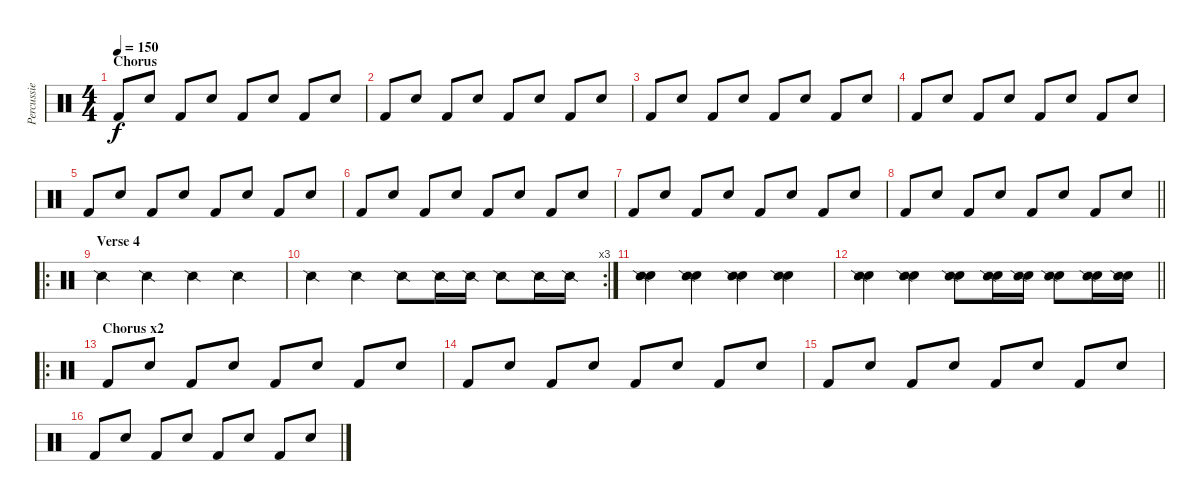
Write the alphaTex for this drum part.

\track ("Percussie" "Percussie") {instrument percussion}
\staff {score}
\articulation defaults
\ts (4 4)
\section ("" "Chorus")
\tempo 150
\clef neutral
\ks c "Kick (hit) 2".8{dy f} "Snare (hit) 2".8 "Kick (hit) 2".8 "Snare (hit) 2".8 "Kick (hit) 2".8 "Snare (hit) 2".8 "Kick (hit) 2".8 "Snare (hit) 2".8
|
"Kick (hit) 2".8 "Snare (hit) 2".8 "Kick (hit) 2".8 "Snare (hit) 2".8 "Kick (hit) 2".8 "Snare (hit) 2".8 "Kick (hit) 2".8 "Snare (hit) 2".8 |
"Kick (hit) 2".8 "Snare (hit) 2".8 "Kick (hit) 2".8 "Snare (hit) 2".8 "Kick (hit) 2".8 "Snare (hit) 2".8 "Kick (hit) 2".8 "Snare (hit) 2".8 |
"Kick (hit) 2".8 "Snare (hit) 2".8 "Kick (hit) 2".8 "Snare (hit) 2".8 "Kick (hit) 2".8 "Snare (hit) 2".8 "Kick (hit) 2".8 "Snare (hit) 2".8 |
"Kick (hit) 2".8 "Snare (hit) 2".8 "Kick (hit) 2".8 "Snare (hit) 2".8 "Kick (hit) 2".8 "Snare (hit) 2".8 "Kick (hit) 2".8 "Snare (hit) 2".8 |
"Kick (hit) 2".8 "Snare (hit) 2".8 "Kick (hit) 2".8 "Snare (hit) 2".8 "Kick (hit) 2".8 "Snare (hit) 2".8 "Kick (hit) 2".8 "Snare (hit) 2".8 |
"Kick (hit) 2".8 "Snare (hit) 2".8 "Kick (hit) 2".8 "Snare (hit) 2".8 "Kick (hit) 2".8 "Snare (hit) 2".8 "Kick (hit) 2".8 "Snare (hit) 2".8 |
\barLineRight lightlight "Kick (hit) 2".8 "Snare (hit) 2".8 "Kick (hit) 2".8 "Snare (hit) 2".8 "Kick (hit) 2".8 "Snare (hit) 2".8 "Kick (hit) 2".8 "Snare (hit) 2".8
|
\ro
\section ("" "Verse 4")
"Snare (side stick) 2".4 "Snare (side stick) 2".4 "Snare (side stick) 2".4 "Snare (side stick) 2".4 |
\rc 3 "Snare (side stick) 2".4 "Snare (side stick) 2".4 "Snare (side stick) 2".8 "Snare (side stick) 2".16 "Snare (side stick) 2".16 "Snare (side stick) 2".8 "Snare (side stick) 2".16 "Snare (side stick) 2".16
|
("Snare (hit) 2" "Snare (side stick) 2").4 ("Snare (hit) 2" "Snare (side stick) 2").4 ("Snare (hit) 2" "Snare (side stick) 2").4 ("Snare (hit) 2" "Snare (side stick) 2").4 |
\barLineRight lightlight
("Snare (hit) 2" "Snare (side stick) 2").4 ("Snare (hit) 2" "Snare (side stick) 2").4 ("Snare (hit) 2" "Snare (side stick) 2").8 ("Snare (hit) 2" "Snare (side stick) 2").16 ("Snare (hit) 2" "Snare (side stick) 2").16 ("Snare (hit) 2" "Snare (side stick) 2").8 ("Snare (hit) 2" "Snare (side stick) 2").16 ("Snare (hit) 2" "Snare (side stick) 2").16 |
\ro
\section ("" "Chorus x2")
"Kick (hit) 2".8 "Snare (hit) 2".8 "Kick (hit) 2".8 "Snare (hit) 2".8 "Kick (hit) 2".8 "Snare (hit) 2".8 "Kick (hit) 2".8 "Snare (hit) 2".8 |
"Kick (hit) 2".8 "Snare (hit) 2".8 "Kick (hit) 2".8 "Snare (hit) 2".8 "Kick (hit) 2".8 "Snare (hit) 2".8 "Kick (hit) 2".8 "Snare (hit) 2".8 |
"Kick (hit) 2".8 "Snare (hit) 2".8 "Kick (hit) 2".8 "Snare (hit) 2".8 "Kick (hit) 2".8 "Snare (hit) 2".8 "Kick (hit) 2".8 "Snare (hit) 2".8 |
"Kick (hit) 2".8 "Snare (hit) 2".8 "Kick (hit) 2".8 "Snare (hit) 2".8 "Kick (hit) 2".8 "Snare (hit) 2".8 "Kick (hit) 2".8 "Snare (hit) 2".8
